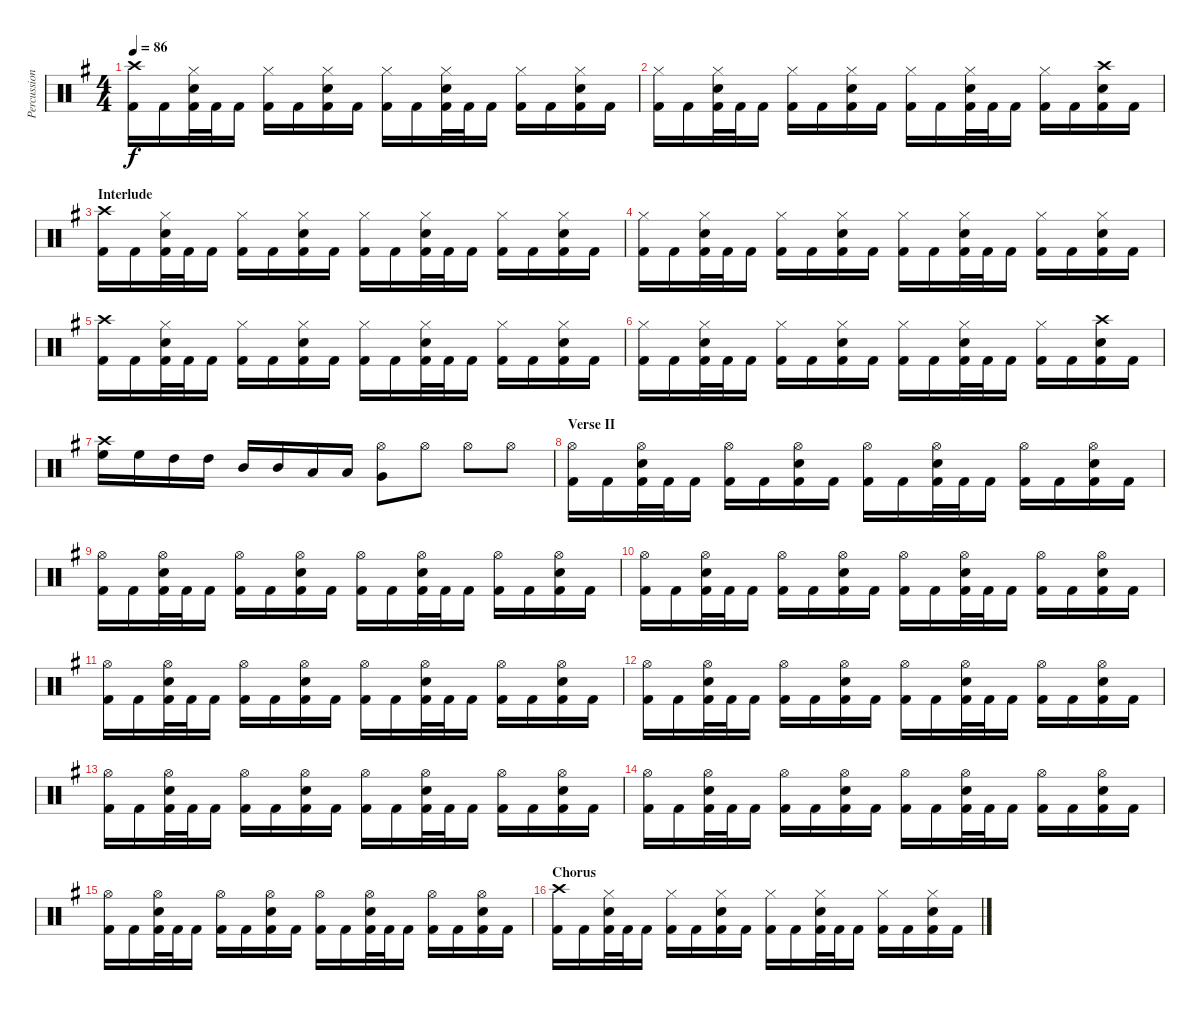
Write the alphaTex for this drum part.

\track ("Percussions" "Percussion") {instrument percussion}
\staff {score}
\articulation defaults
\ts (4 4)
\tempo 86
\clef neutral
\ks eminor
("Crash high (hit)" "Kick (hit) 2").16{dy f} "Kick (hit) 2".16 ("Hi-Hat (closed)" "Snare (hit) 2" "Kick (hit) 2").32 "Kick (hit) 2".32 "Kick (hit) 2".16 ("Hi-Hat (closed)" "Kick (hit) 2").16 "Kick (hit) 2".16 ("Hi-Hat (closed)" "Snare (hit) 2" "Kick (hit) 2").16 "Kick (hit) 2".16 ("Hi-Hat (closed)" "Kick (hit) 2").16 "Kick (hit) 2".16 ("Hi-Hat (closed)" "Snare (hit) 2" "Kick (hit) 2").32 "Kick (hit) 2".32 "Kick (hit) 2".16 ("Hi-Hat (closed)" "Kick (hit) 2").16 "Kick (hit) 2".16 ("Hi-Hat (closed)" "Snare (hit) 2" "Kick (hit) 2").16 "Kick (hit) 2".16 |
("Hi-Hat (closed)" "Kick (hit) 2").16 "Kick (hit) 2".16 ("Hi-Hat (closed)" "Snare (hit) 2" "Kick (hit) 2").32 "Kick (hit) 2".32 "Kick (hit) 2".16 ("Hi-Hat (closed)" "Kick (hit) 2").16 "Kick (hit) 2".16 ("Hi-Hat (closed)" "Snare (hit) 2" "Kick (hit) 2").16 "Kick (hit) 2".16 ("Hi-Hat (closed)" "Kick (hit) 2").16 "Kick (hit) 2".16 ("Hi-Hat (closed)" "Snare (hit) 2" "Kick (hit) 2").32 "Kick (hit) 2".32 "Kick (hit) 2".16 ("Hi-Hat (closed)" "Kick (hit) 2").16 "Kick (hit) 2".16 ("Crash high (hit)" "Snare (hit) 2" "Kick (hit) 2").16 "Kick (hit) 2".16 |
\section ("" "Interlude")
("Crash high (hit)" "Kick (hit) 2").16 "Kick (hit) 2".16 ("Hi-Hat (closed)" "Snare (hit) 2" "Kick (hit) 2").32 "Kick (hit) 2".32 "Kick (hit) 2".16 ("Hi-Hat (closed)" "Kick (hit) 2").16 "Kick (hit) 2".16 ("Hi-Hat (closed)" "Snare (hit) 2" "Kick (hit) 2").16 "Kick (hit) 2".16 ("Hi-Hat (closed)" "Kick (hit) 2").16 "Kick (hit) 2".16 ("Hi-Hat (closed)" "Snare (hit) 2" "Kick (hit) 2").32 "Kick (hit) 2".32 "Kick (hit) 2".16 ("Hi-Hat (closed)" "Kick (hit) 2").16 "Kick (hit) 2".16 ("Hi-Hat (closed)" "Snare (hit) 2" "Kick (hit) 2").16 "Kick (hit) 2".16 |
("Hi-Hat (closed)" "Kick (hit) 2").16 "Kick (hit) 2".16 ("Hi-Hat (closed)" "Snare (hit) 2" "Kick (hit) 2").32 "Kick (hit) 2".32 "Kick (hit) 2".16 ("Hi-Hat (closed)" "Kick (hit) 2").16 "Kick (hit) 2".16 ("Hi-Hat (closed)" "Snare (hit) 2" "Kick (hit) 2").16 "Kick (hit) 2".16 ("Hi-Hat (closed)" "Kick (hit) 2").16 "Kick (hit) 2".16 ("Hi-Hat (closed)" "Snare (hit) 2" "Kick (hit) 2").32 "Kick (hit) 2".32 "Kick (hit) 2".16 ("Hi-Hat (closed)" "Kick (hit) 2").16 "Kick (hit) 2".16 ("Hi-Hat (closed)" "Snare (hit) 2" "Kick (hit) 2").16 "Kick (hit) 2".16 |
("Crash high (hit)" "Kick (hit) 2").16 "Kick (hit) 2".16 ("Hi-Hat (closed)" "Snare (hit) 2" "Kick (hit) 2").32 "Kick (hit) 2".32 "Kick (hit) 2".16 ("Hi-Hat (closed)" "Kick (hit) 2").16 "Kick (hit) 2".16 ("Hi-Hat (closed)" "Snare (hit) 2" "Kick (hit) 2").16 "Kick (hit) 2".16 ("Hi-Hat (closed)" "Kick (hit) 2").16 "Kick (hit) 2".16 ("Hi-Hat (closed)" "Snare (hit) 2" "Kick (hit) 2").32 "Kick (hit) 2".32 "Kick (hit) 2".16 ("Hi-Hat (closed)" "Kick (hit) 2").16 "Kick (hit) 2".16 ("Hi-Hat (closed)" "Snare (hit) 2" "Kick (hit) 2").16 "Kick (hit) 2".16 |
("Hi-Hat (closed)" "Kick (hit) 2").16 "Kick (hit) 2".16 ("Hi-Hat (closed)" "Snare (hit) 2" "Kick (hit) 2").32 "Kick (hit) 2".32 "Kick (hit) 2".16 ("Hi-Hat (closed)" "Kick (hit) 2").16 "Kick (hit) 2".16 ("Hi-Hat (closed)" "Snare (hit) 2" "Kick (hit) 2").16 "Kick (hit) 2".16 ("Hi-Hat (closed)" "Kick (hit) 2").16 "Kick (hit) 2".16 ("Hi-Hat (closed)" "Snare (hit) 2" "Kick (hit) 2").32 "Kick (hit) 2".32 "Kick (hit) 2".16 ("Hi-Hat (closed)" "Kick (hit) 2").16 "Kick (hit) 2".16 ("Crash high (hit)" "Snare (hit) 2" "Kick (hit) 2").16 "Kick (hit) 2".16 |
("Crash high (hit)" "High Floor Tom (hit)").16 "High Floor Tom (hit)".16 "High Tom (hit)".16 "High Tom (hit)".16 "Mid Tom (hit)".16 "Mid Tom (hit)".16 "Low Tom (hit)".16 "Low Tom (hit)".16 ("Hi-Hat (open)" "Very Low Tom (hit)").8 "Hi-Hat (open)".8 "Hi-Hat (open)".8 "Hi-Hat (open)".8 |
\section ("" "Verse II")
("Hi-Hat (open)" "Kick (hit) 2").16 "Kick (hit) 2".16 ("Hi-Hat (open)" "Snare (hit) 2" "Kick (hit) 2").32 "Kick (hit) 2".32 "Kick (hit) 2".16 ("Hi-Hat (open)" "Kick (hit) 2").16 "Kick (hit) 2".16 ("Hi-Hat (open)" "Snare (hit) 2" "Kick (hit) 2").16 "Kick (hit) 2".16 ("Hi-Hat (open)" "Kick (hit) 2").16 "Kick (hit) 2".16 ("Hi-Hat (open)" "Snare (hit) 2" "Kick (hit) 2").32 "Kick (hit) 2".32 "Kick (hit) 2".16 ("Hi-Hat (open)" "Kick (hit) 2").16 "Kick (hit) 2".16 ("Hi-Hat (open)" "Snare (hit) 2" "Kick (hit) 2").16 "Kick (hit) 2".16 |
("Hi-Hat (open)" "Kick (hit) 2").16 "Kick (hit) 2".16 ("Hi-Hat (open)" "Snare (hit) 2" "Kick (hit) 2").32 "Kick (hit) 2".32 "Kick (hit) 2".16 ("Hi-Hat (open)" "Kick (hit) 2").16 "Kick (hit) 2".16 ("Hi-Hat (open)" "Snare (hit) 2" "Kick (hit) 2").16 "Kick (hit) 2".16 ("Hi-Hat (open)" "Kick (hit) 2").16 "Kick (hit) 2".16 ("Hi-Hat (open)" "Snare (hit) 2" "Kick (hit) 2").32 "Kick (hit) 2".32 "Kick (hit) 2".16 ("Hi-Hat (open)" "Kick (hit) 2").16 "Kick (hit) 2".16 ("Hi-Hat (open)" "Snare (hit) 2" "Kick (hit) 2").16 "Kick (hit) 2".16 |
("Hi-Hat (open)" "Kick (hit) 2").16 "Kick (hit) 2".16 ("Hi-Hat (open)" "Snare (hit) 2" "Kick (hit) 2").32 "Kick (hit) 2".32 "Kick (hit) 2".16 ("Hi-Hat (open)" "Kick (hit) 2").16 "Kick (hit) 2".16 ("Hi-Hat (open)" "Snare (hit) 2" "Kick (hit) 2").16 "Kick (hit) 2".16 ("Hi-Hat (open)" "Kick (hit) 2").16 "Kick (hit) 2".16 ("Hi-Hat (open)" "Snare (hit) 2" "Kick (hit) 2").32 "Kick (hit) 2".32 "Kick (hit) 2".16 ("Hi-Hat (open)" "Kick (hit) 2").16 "Kick (hit) 2".16 ("Hi-Hat (open)" "Snare (hit) 2" "Kick (hit) 2").16 "Kick (hit) 2".16 |
("Hi-Hat (open)" "Kick (hit) 2").16 "Kick (hit) 2".16 ("Hi-Hat (open)" "Snare (hit) 2" "Kick (hit) 2").32 "Kick (hit) 2".32 "Kick (hit) 2".16 ("Hi-Hat (open)" "Kick (hit) 2").16 "Kick (hit) 2".16 ("Hi-Hat (open)" "Snare (hit) 2" "Kick (hit) 2").16 "Kick (hit) 2".16 ("Hi-Hat (open)" "Kick (hit) 2").16 "Kick (hit) 2".16 ("Hi-Hat (open)" "Snare (hit) 2" "Kick (hit) 2").32 "Kick (hit) 2".32 "Kick (hit) 2".16 ("Hi-Hat (open)" "Kick (hit) 2").16 "Kick (hit) 2".16 ("Hi-Hat (open)" "Snare (hit) 2" "Kick (hit) 2").16 "Kick (hit) 2".16 |
("Hi-Hat (open)" "Kick (hit) 2").16 "Kick (hit) 2".16 ("Hi-Hat (open)" "Snare (hit) 2" "Kick (hit) 2").32 "Kick (hit) 2".32 "Kick (hit) 2".16 ("Hi-Hat (open)" "Kick (hit) 2").16 "Kick (hit) 2".16 ("Hi-Hat (open)" "Snare (hit) 2" "Kick (hit) 2").16 "Kick (hit) 2".16 ("Hi-Hat (open)" "Kick (hit) 2").16 "Kick (hit) 2".16 ("Hi-Hat (open)" "Snare (hit) 2" "Kick (hit) 2").32 "Kick (hit) 2".32 "Kick (hit) 2".16 ("Hi-Hat (open)" "Kick (hit) 2").16 "Kick (hit) 2".16 ("Hi-Hat (open)" "Snare (hit) 2" "Kick (hit) 2").16 "Kick (hit) 2".16 |
("Hi-Hat (open)" "Kick (hit) 2").16 "Kick (hit) 2".16 ("Hi-Hat (open)" "Snare (hit) 2" "Kick (hit) 2").32 "Kick (hit) 2".32 "Kick (hit) 2".16 ("Hi-Hat (open)" "Kick (hit) 2").16 "Kick (hit) 2".16 ("Hi-Hat (open)" "Snare (hit) 2" "Kick (hit) 2").16 "Kick (hit) 2".16 ("Hi-Hat (open)" "Kick (hit) 2").16 "Kick (hit) 2".16 ("Hi-Hat (open)" "Snare (hit) 2" "Kick (hit) 2").32 "Kick (hit) 2".32 "Kick (hit) 2".16 ("Hi-Hat (open)" "Kick (hit) 2").16 "Kick (hit) 2".16 ("Hi-Hat (open)" "Snare (hit) 2" "Kick (hit) 2").16 "Kick (hit) 2".16 |
("Hi-Hat (open)" "Kick (hit) 2").16 "Kick (hit) 2".16 ("Hi-Hat (open)" "Snare (hit) 2" "Kick (hit) 2").32 "Kick (hit) 2".32 "Kick (hit) 2".16 ("Hi-Hat (open)" "Kick (hit) 2").16 "Kick (hit) 2".16 ("Hi-Hat (open)" "Snare (hit) 2" "Kick (hit) 2").16 "Kick (hit) 2".16 ("Hi-Hat (open)" "Kick (hit) 2").16 "Kick (hit) 2".16 ("Hi-Hat (open)" "Snare (hit) 2" "Kick (hit) 2").32 "Kick (hit) 2".32 "Kick (hit) 2".16 ("Hi-Hat (open)" "Kick (hit) 2").16 "Kick (hit) 2".16 ("Hi-Hat (open)" "Snare (hit) 2" "Kick (hit) 2").16 "Kick (hit) 2".16 |
("Hi-Hat (open)" "Kick (hit) 2").16 "Kick (hit) 2".16 ("Hi-Hat (open)" "Snare (hit) 2" "Kick (hit) 2").32 "Kick (hit) 2".32 "Kick (hit) 2".16 ("Hi-Hat (open)" "Kick (hit) 2").16 "Kick (hit) 2".16 ("Hi-Hat (open)" "Snare (hit) 2" "Kick (hit) 2").16 "Kick (hit) 2".16 ("Hi-Hat (open)" "Kick (hit) 2").16 "Kick (hit) 2".16 ("Hi-Hat (open)" "Snare (hit) 2" "Kick (hit) 2").32 "Kick (hit) 2".32 "Kick (hit) 2".16 ("Hi-Hat (open)" "Kick (hit) 2").16 "Kick (hit) 2".16 ("Hi-Hat (open)" "Snare (hit) 2" "Kick (hit) 2").16 "Kick (hit) 2".16 |
\section ("" "Chorus")
("Crash high (hit)" "Kick (hit) 2").16 "Kick (hit) 2".16 ("Hi-Hat (closed)" "Snare (hit) 2" "Kick (hit) 2").32 "Kick (hit) 2".32 "Kick (hit) 2".16 ("Hi-Hat (closed)" "Kick (hit) 2").16 "Kick (hit) 2".16 ("Hi-Hat (closed)" "Snare (hit) 2" "Kick (hit) 2").16 "Kick (hit) 2".16 ("Hi-Hat (closed)" "Kick (hit) 2").16 "Kick (hit) 2".16 ("Hi-Hat (closed)" "Snare (hit) 2" "Kick (hit) 2").32 "Kick (hit) 2".32 "Kick (hit) 2".16 ("Hi-Hat (closed)" "Kick (hit) 2").16 "Kick (hit) 2".16 ("Hi-Hat (closed)" "Snare (hit) 2" "Kick (hit) 2").16 "Kick (hit) 2".16
